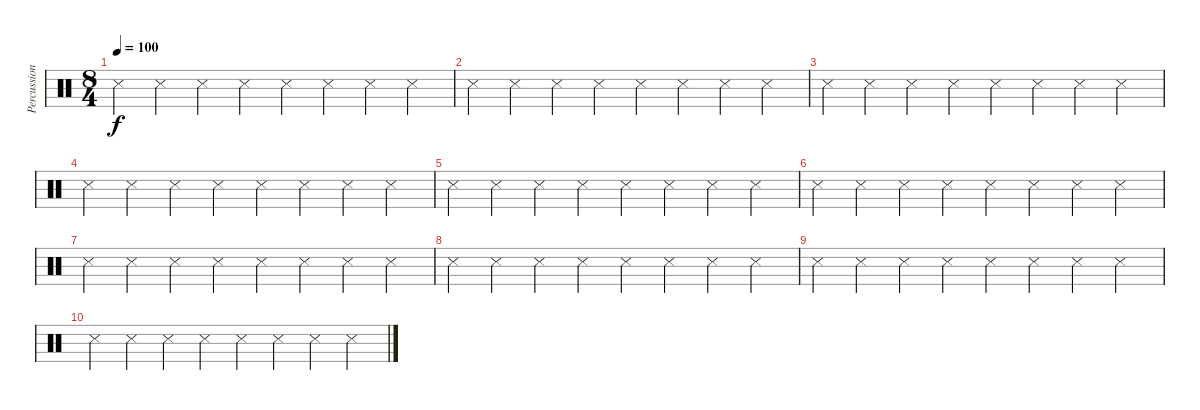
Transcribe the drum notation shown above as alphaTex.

\track ("Percussion" "Percussion") {mute instrument percussion}
\staff {score}
\articulation defaults
\ts (8 4)
\tempo 100
\clef neutral
\ks c "Metronome (hit)".4{dy f} "Snare (side stick) 3".4 "Snare (side stick) 3".4 "Snare (side stick) 3".4 "Metronome (hit)".4 "Snare (side stick) 3".4 "Snare (side stick) 3".4 "Snare (side stick) 3".4
|
"Metronome (hit)".4 "Snare (side stick) 3".4 "Snare (side stick) 3".4 "Snare (side stick) 3".4 "Metronome (hit)".4 "Snare (side stick) 3".4 "Snare (side stick) 3".4 "Snare (side stick) 3".4 |
"Metronome (hit)".4 "Snare (side stick) 3".4 "Snare (side stick) 3".4 "Snare (side stick) 3".4 "Metronome (hit)".4 "Snare (side stick) 3".4 "Snare (side stick) 3".4 "Snare (side stick) 3".4 |
"Metronome (hit)".4 "Snare (side stick) 3".4 "Snare (side stick) 3".4 "Snare (side stick) 3".4 "Metronome (hit)".4 "Snare (side stick) 3".4 "Snare (side stick) 3".4 "Snare (side stick) 3".4 |
"Metronome (hit)".4 "Snare (side stick) 3".4 "Snare (side stick) 3".4 "Snare (side stick) 3".4 "Metronome (hit)".4 "Snare (side stick) 3".4 "Snare (side stick) 3".4 "Snare (side stick) 3".4 |
"Metronome (hit)".4 "Snare (side stick) 3".4 "Snare (side stick) 3".4 "Snare (side stick) 3".4 "Metronome (hit)".4 "Snare (side stick) 3".4 "Snare (side stick) 3".4 "Snare (side stick) 3".4 |
"Metronome (hit)".4 "Snare (side stick) 3".4 "Snare (side stick) 3".4 "Snare (side stick) 3".4 "Metronome (hit)".4 "Snare (side stick) 3".4 "Snare (side stick) 3".4 "Snare (side stick) 3".4 |
"Metronome (hit)".4 "Snare (side stick) 3".4 "Snare (side stick) 3".4 "Snare (side stick) 3".4 "Metronome (hit)".4 "Snare (side stick) 3".4 "Snare (side stick) 3".4 "Snare (side stick) 3".4 |
"Metronome (hit)".4 "Snare (side stick) 3".4 "Snare (side stick) 3".4 "Snare (side stick) 3".4 "Metronome (hit)".4 "Snare (side stick) 3".4 "Snare (side stick) 3".4 "Snare (side stick) 3".4 |
"Metronome (hit)".4 "Snare (side stick) 3".4 "Snare (side stick) 3".4 "Snare (side stick) 3".4 "Metronome (hit)".4 "Snare (side stick) 3".4 "Snare (side stick) 3".4 "Snare (side stick) 3".4
